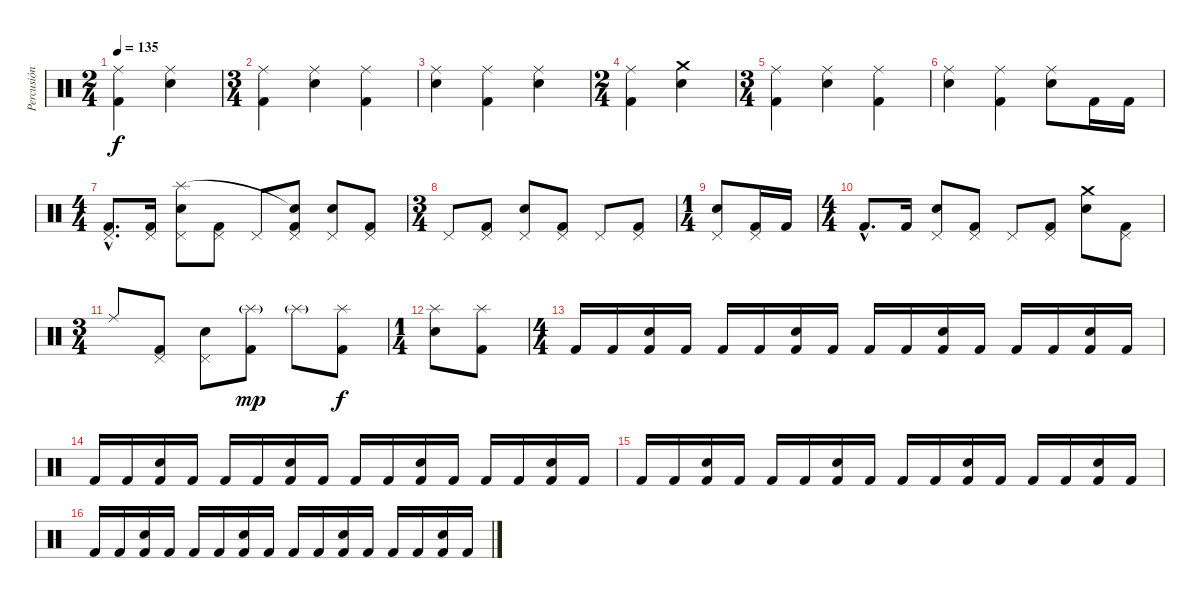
\track ("Percusión" "Percusión") {instrument percussion}
\staff {score}
\articulation defaults
\ts (2 4)
\tempo 135
\clef neutral
\ks c
("Kick (hit) 2" "Ride (middle)").4{dy f} ("Snare (hit) 2" "Ride (middle)").4 |
\ts (3 4)
("Kick (hit) 2" "Ride (middle)").4 ("Snare (hit) 2" "Ride (middle)").4 ("Kick (hit) 2" "Ride (middle)").4 |
("Snare (hit) 2" "Ride (middle)").4 ("Kick (hit) 2" "Ride (middle)").4 ("Snare (hit) 2" "Ride (middle)").4 |
\ts (2 4)
("Kick (hit) 2" "Ride (middle)").4 ("Snare (hit) 2" "Crash medium (hit)").4 |
\ts (3 4)
("Kick (hit) 2" "Ride (middle)").4 ("Snare (hit) 2" "Ride (middle)").4 ("Kick (hit) 2" "Ride (middle)").4 |
("Snare (hit) 2" "Ride (middle)").4 ("Kick (hit) 2" "Ride (middle)").4 ("Snare (hit) 2" "Ride (middle)").8 "Kick (hit) 2".16 "Kick (hit) 2".16 |
\ts (4 4)
("Kick (hit) 2"{hac} "Pedal Hi-Hat (hit)"{hac}).8{d} ("Kick (hit) 2" "Pedal Hi-Hat (hit)").16 ("Snare (hit) 2" "Pedal Hi-Hat (hit)" "Splash (hit)").8 ("Kick (hit) 2" "Pedal Hi-Hat (hit)").8 "Pedal Hi-Hat (hit)".8 ("Kick (hit) 2" "Pedal Hi-Hat (hit)" "Snare (hit)"{t}).8 ("Snare (hit) 2" "Pedal Hi-Hat (hit)").8 ("Kick (hit) 2" "Pedal Hi-Hat (hit)").8 |
\ts (3 4)
"Pedal Hi-Hat (hit)".8 ("Kick (hit) 2" "Pedal Hi-Hat (hit)").8 ("Snare (hit) 2" "Pedal Hi-Hat (hit)").8 ("Kick (hit) 2" "Pedal Hi-Hat (hit)").8 "Pedal Hi-Hat (hit)".8 ("Kick (hit) 2" "Pedal Hi-Hat (hit)").8 |
\ts (1 4)
("Snare (hit) 2" "Pedal Hi-Hat (hit)").8 ("Kick (hit) 2" "Pedal Hi-Hat (hit)").16 "Kick (hit) 2".16 |
\ts (4 4)
"Kick (hit) 2"{hac}.8{d} "Kick (hit) 2".16 ("Snare (hit) 2" "Pedal Hi-Hat (hit)").8 ("Kick (hit) 2" "Pedal Hi-Hat (hit)").8 "Pedal Hi-Hat (hit)".8 ("Kick (hit) 2" "Pedal Hi-Hat (hit)").8 ("Snare (hit) 2" "Crash medium (hit)").8 ("Kick (hit) 2" "Pedal Hi-Hat (hit)").8 |
\ts (3 4)
"Ride (middle)".8 ("Kick (hit) 2" "Pedal Hi-Hat (hit)").8 ("Snare (hit) 2" "Pedal Hi-Hat (hit)").8 ("Kick (hit) 2" "Splash (hit)"{g}).8{dy mp} "Splash (hit)"{g}.8 ("Kick (hit) 2" "Splash (hit)").8{dy f} |
\ts (1 4)
("Snare (hit) 2" "Splash (hit)").8 ("Kick (hit) 2" "Splash (hit)").8 |
\ts (4 4)
"Kick (hit) 2".16 "Kick (hit) 2".16 ("Snare (hit) 2" "Kick (hit) 2").16 "Kick (hit) 2".16 "Kick (hit) 2".16 "Kick (hit) 2".16 ("Snare (hit) 2" "Kick (hit) 2").16 "Kick (hit) 2".16 "Kick (hit) 2".16 "Kick (hit) 2".16 ("Snare (hit) 2" "Kick (hit) 2").16 "Kick (hit) 2".16 "Kick (hit) 2".16 "Kick (hit) 2".16 ("Snare (hit) 2" "Kick (hit) 2").16 "Kick (hit) 2".16 |
"Kick (hit) 2".16 "Kick (hit) 2".16 ("Snare (hit) 2" "Kick (hit) 2").16 "Kick (hit) 2".16 "Kick (hit) 2".16 "Kick (hit) 2".16 ("Snare (hit) 2" "Kick (hit) 2").16 "Kick (hit) 2".16 "Kick (hit) 2".16 "Kick (hit) 2".16 ("Snare (hit) 2" "Kick (hit) 2").16 "Kick (hit) 2".16 "Kick (hit) 2".16 "Kick (hit) 2".16 ("Snare (hit) 2" "Kick (hit) 2").16 "Kick (hit) 2".16 |
"Kick (hit) 2".16 "Kick (hit) 2".16 ("Snare (hit) 2" "Kick (hit) 2").16 "Kick (hit) 2".16 "Kick (hit) 2".16 "Kick (hit) 2".16 ("Snare (hit) 2" "Kick (hit) 2").16 "Kick (hit) 2".16 "Kick (hit) 2".16 "Kick (hit) 2".16 ("Snare (hit) 2" "Kick (hit) 2").16 "Kick (hit) 2".16 "Kick (hit) 2".16 "Kick (hit) 2".16 ("Snare (hit) 2" "Kick (hit) 2").16 "Kick (hit) 2".16 |
"Kick (hit) 2".16 "Kick (hit) 2".16 ("Snare (hit) 2" "Kick (hit) 2").16 "Kick (hit) 2".16 "Kick (hit) 2".16 "Kick (hit) 2".16 ("Snare (hit) 2" "Kick (hit) 2").16 "Kick (hit) 2".16 "Kick (hit) 2".16 "Kick (hit) 2".16 ("Snare (hit) 2" "Kick (hit) 2").16 "Kick (hit) 2".16 "Kick (hit) 2".16 "Kick (hit) 2".16 ("Snare (hit) 2" "Kick (hit) 2").16 "Kick (hit) 2".16
